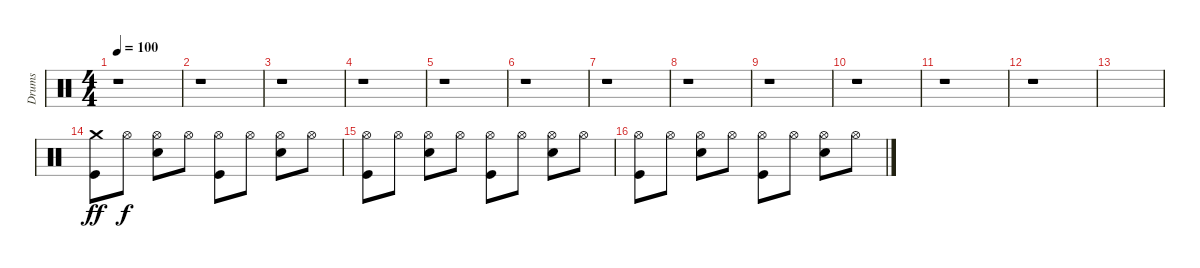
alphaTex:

\track ("Drums" "Drums") {instrument percussion}
\staff {score}
\articulation defaults
\ts (4 4)
\tempo 100
\clef neutral
\ks c
r.1{dy f} |
r.1 |
r.1 |
r.1 |
r.1 |
r.1 |
r.1 |
r.1 |
r.1 |
r.1 |
r.1 |
r.1 |
|
("Crash medium (hit)" "Kick (hit)").8{dy ff} "Hi-Hat (open)".8{dy f} ("Hi-Hat (open)" "Snare (hit) 2").8 "Hi-Hat (open)".8 ("Hi-Hat (open)" "Kick (hit)").8 "Hi-Hat (open)".8 ("Hi-Hat (open)" "Snare (hit) 2").8 "Hi-Hat (open)".8 |
("Hi-Hat (open)" "Kick (hit)").8 "Hi-Hat (open)".8 ("Hi-Hat (open)" "Snare (hit) 2").8 "Hi-Hat (open)".8 ("Hi-Hat (open)" "Kick (hit)").8 "Hi-Hat (open)".8 ("Hi-Hat (open)" "Snare (hit) 2").8 "Hi-Hat (open)".8 |
("Hi-Hat (open)" "Kick (hit)").8 "Hi-Hat (open)".8 ("Hi-Hat (open)" "Snare (hit) 2").8 "Hi-Hat (open)".8 ("Hi-Hat (open)" "Kick (hit)").8 "Hi-Hat (open)".8 ("Hi-Hat (open)" "Snare (hit) 2").8 "Hi-Hat (open)".8
